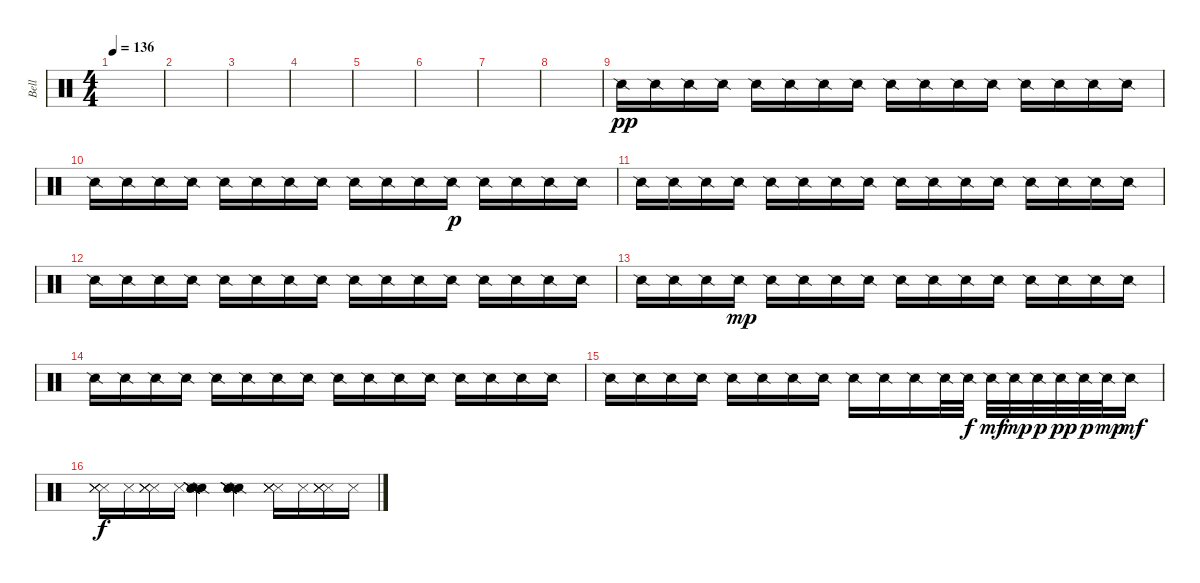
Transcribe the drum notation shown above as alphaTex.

\track ("Bell" "Bell") {instrument percussion}
\staff {score}
\articulation defaults
\ts (4 4)
\tempo 136
\clef neutral
\ks c
|
|
|
|
|
|
|
|
"Snare (side stick) 2".16{dy pp} "Snare (side stick) 2".16 "Snare (side stick) 2".16 "Snare (side stick) 2".16 "Snare (side stick) 2".16 "Snare (side stick) 2".16 "Snare (side stick) 2".16 "Snare (side stick) 2".16 "Snare (side stick) 2".16 "Snare (side stick) 2".16 "Snare (side stick) 2".16 "Snare (side stick) 2".16 "Snare (side stick) 2".16 "Snare (side stick) 2".16 "Snare (side stick) 2".16 "Snare (side stick) 2".16 |
"Snare (side stick) 2".16 "Snare (side stick) 2".16 "Snare (side stick) 2".16 "Snare (side stick) 2".16 "Snare (side stick) 2".16 "Snare (side stick) 2".16 "Snare (side stick) 2".16 "Snare (side stick) 2".16 "Snare (side stick) 2".16 "Snare (side stick) 2".16 "Snare (side stick) 2".16 "Snare (side stick) 2".16{dy p} "Snare (side stick) 2".16 "Snare (side stick) 2".16 "Snare (side stick) 2".16 "Snare (side stick) 2".16 |
"Snare (side stick) 2".16 "Snare (side stick) 2".16 "Snare (side stick) 2".16 "Snare (side stick) 2".16 "Snare (side stick) 2".16 "Snare (side stick) 2".16 "Snare (side stick) 2".16 "Snare (side stick) 2".16 "Snare (side stick) 2".16 "Snare (side stick) 2".16 "Snare (side stick) 2".16 "Snare (side stick) 2".16 "Snare (side stick) 2".16 "Snare (side stick) 2".16 "Snare (side stick) 2".16 "Snare (side stick) 2".16 |
"Snare (side stick) 2".16 "Snare (side stick) 2".16 "Snare (side stick) 2".16 "Snare (side stick) 2".16 "Snare (side stick) 2".16 "Snare (side stick) 2".16 "Snare (side stick) 2".16 "Snare (side stick) 2".16 "Snare (side stick) 2".16 "Snare (side stick) 2".16 "Snare (side stick) 2".16 "Snare (side stick) 2".16 "Snare (side stick) 2".16 "Snare (side stick) 2".16 "Snare (side stick) 2".16 "Snare (side stick) 2".16 |
"Snare (side stick) 2".16 "Snare (side stick) 2".16 "Snare (side stick) 2".16 "Snare (side stick) 2".16{dy mp} "Snare (side stick) 2".16 "Snare (side stick) 2".16 "Snare (side stick) 2".16 "Snare (side stick) 2".16 "Snare (side stick) 2".16 "Snare (side stick) 2".16 "Snare (side stick) 2".16 "Snare (side stick) 2".16 "Snare (side stick) 2".16 "Snare (side stick) 2".16 "Snare (side stick) 2".16 "Snare (side stick) 2".16 |
"Snare (side stick) 2".16 "Snare (side stick) 2".16 "Snare (side stick) 2".16 "Snare (side stick) 2".16 "Snare (side stick) 2".16 "Snare (side stick) 2".16 "Snare (side stick) 2".16 "Snare (side stick) 2".16 "Snare (side stick) 2".16 "Snare (side stick) 2".16 "Snare (side stick) 2".16 "Snare (side stick) 2".16 "Snare (side stick) 2".16 "Snare (side stick) 2".16 "Snare (side stick) 2".16 "Snare (side stick) 2".16 |
"Snare (side stick) 2".16 "Snare (side stick) 2".16 "Snare (side stick) 2".16 "Snare (side stick) 2".16 "Snare (side stick) 2".16 "Snare (side stick) 2".16 "Snare (side stick) 2".16 "Snare (side stick) 2".16 "Snare (side stick) 2".16 "Snare (side stick) 2".16 "Snare (side stick) 2".16 "Snare (side stick) 2".32 "Snare (side stick) 2".32{dy f} "Snare (side stick) 2".32{dy mf} "Snare (side stick) 2".32{dy mp} "Snare (side stick) 2".32{dy p} "Snare (side stick) 2".32{dy pp} "Snare (side stick) 2".32{dy p} "Snare (side stick) 2".32{dy mp} "Snare (side stick) 2".16{dy mf} |
("Metronome (hit)" "Metronome (hit)" "Metronome (hit)" "Metronome (hit)").16{dy f} "Metronome (hit)".16 ("Metronome (hit)" "Metronome (hit)" "Metronome (hit)" "Metronome (hit)").16 "Metronome (hit)".16 ("Snare (side stick) 2" "Snare (side stick) 2" "Snare (side stick) 2" "Snare (side stick) 2" "Snare (side stick) 2").4 ("Snare (side stick) 2" "Snare (side stick) 2" "Snare (side stick) 2" "Snare (side stick) 2" "Snare (side stick) 2").4 ("Metronome (hit)" "Metronome (hit)" "Metronome (hit)" "Metronome (hit)").16 "Metronome (hit)".16 ("Metronome (hit)" "Metronome (hit)" "Metronome (hit)" "Metronome (hit)").16 "Metronome (hit)".16
